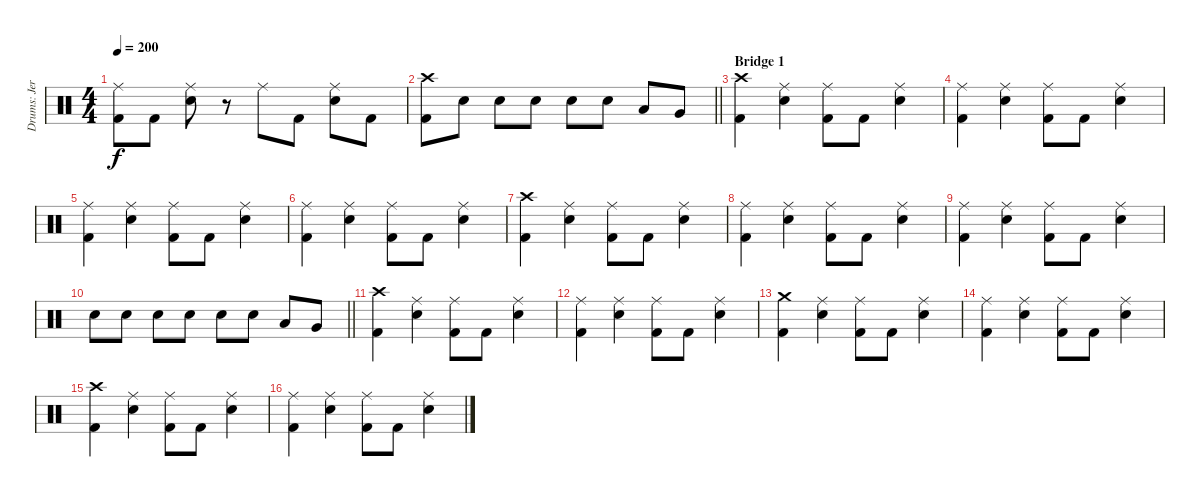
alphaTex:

\track ("Drums: Jere Luokkamäki" "Drums: Jer") {instrument percussion}
\staff {score}
\articulation defaults
\ts (4 4)
\tempo 200
\clef neutral
\ks aminor
("Ride (middle)" "Kick (hit) 2").8{dy f} "Kick (hit) 2".8 ("Ride (middle)" "Electric Snare (hit)").8 r.8 "Ride (middle)".8 "Kick (hit) 2".8 ("Ride (middle)" "Electric Snare (hit)").8 "Kick (hit) 2".8 |
\barLineRight lightlight
("Crash high (hit)" "Kick (hit) 2").8 "Electric Snare (hit)".8 "Electric Snare (hit)".8 "Electric Snare (hit)".8 "Electric Snare (hit)".8 "Electric Snare (hit)".8 "Low Tom (hit)".8 "Very Low Tom (hit)".8 |
\section ("" "Bridge 1")
("Crash high (hit)" "Kick (hit) 2").4 ("Ride (middle)" "Electric Snare (hit)").4 ("Ride (middle)" "Kick (hit) 2").8 "Kick (hit) 2".8 ("Ride (middle)" "Electric Snare (hit)").4 |
("Ride (middle)" "Kick (hit) 2").4 ("Ride (middle)" "Electric Snare (hit)").4 ("Ride (middle)" "Kick (hit) 2").8 "Kick (hit) 2".8 ("Ride (middle)" "Electric Snare (hit)").4 |
("Ride (middle)" "Kick (hit) 2").4 ("Ride (middle)" "Electric Snare (hit)").4 ("Ride (middle)" "Kick (hit) 2").8 "Kick (hit) 2".8 ("Ride (middle)" "Electric Snare (hit)").4 |
("Ride (middle)" "Kick (hit) 2").4 ("Ride (middle)" "Electric Snare (hit)").4 ("Ride (middle)" "Kick (hit) 2").8 "Kick (hit) 2".8 ("Ride (middle)" "Electric Snare (hit)").4 |
("Crash high (hit)" "Kick (hit) 2").4 ("Ride (middle)" "Electric Snare (hit)").4 ("Ride (middle)" "Kick (hit) 2").8 "Kick (hit) 2".8 ("Ride (middle)" "Electric Snare (hit)").4 |
("Ride (middle)" "Kick (hit) 2").4 ("Ride (middle)" "Electric Snare (hit)").4 ("Ride (middle)" "Kick (hit) 2").8 "Kick (hit) 2".8 ("Ride (middle)" "Electric Snare (hit)").4 |
("Ride (middle)" "Kick (hit) 2").4 ("Ride (middle)" "Electric Snare (hit)").4 ("Ride (middle)" "Kick (hit) 2").8 "Kick (hit) 2".8 ("Ride (middle)" "Electric Snare (hit)").4 |
\barLineRight lightlight "Electric Snare (hit)".8 "Electric Snare (hit)".8 "Electric Snare (hit)".8 "Electric Snare (hit)".8 "Electric Snare (hit)".8 "Electric Snare (hit)".8 "Low Tom (hit)".8 "Very Low Tom (hit)".8
|
("Crash high (hit)" "Kick (hit) 2").4 ("Ride (middle)" "Electric Snare (hit)").4 ("Ride (middle)" "Kick (hit) 2").8 "Kick (hit) 2".8 ("Ride (middle)" "Electric Snare (hit)").4 |
("Ride (middle)" "Kick (hit) 2").4 ("Ride (middle)" "Electric Snare (hit)").4 ("Ride (middle)" "Kick (hit) 2").8 "Kick (hit) 2".8 ("Ride (middle)" "Electric Snare (hit)").4 |
("Crash medium (hit)" "Kick (hit) 2").4 ("Ride (middle)" "Electric Snare (hit)").4 ("Ride (middle)" "Kick (hit) 2").8 "Kick (hit) 2".8 ("Ride (middle)" "Electric Snare (hit)").4 |
("Ride (middle)" "Kick (hit) 2").4 ("Ride (middle)" "Electric Snare (hit)").4 ("Ride (middle)" "Kick (hit) 2").8 "Kick (hit) 2".8 ("Ride (middle)" "Electric Snare (hit)").4 |
("Crash high (hit)" "Kick (hit) 2").4 ("Ride (middle)" "Electric Snare (hit)").4 ("Ride (middle)" "Kick (hit) 2").8 "Kick (hit) 2".8 ("Ride (middle)" "Electric Snare (hit)").4 |
("Ride (middle)" "Kick (hit) 2").4 ("Ride (middle)" "Electric Snare (hit)").4 ("Ride (middle)" "Kick (hit) 2").8 "Kick (hit) 2".8 ("Ride (middle)" "Electric Snare (hit)").4
